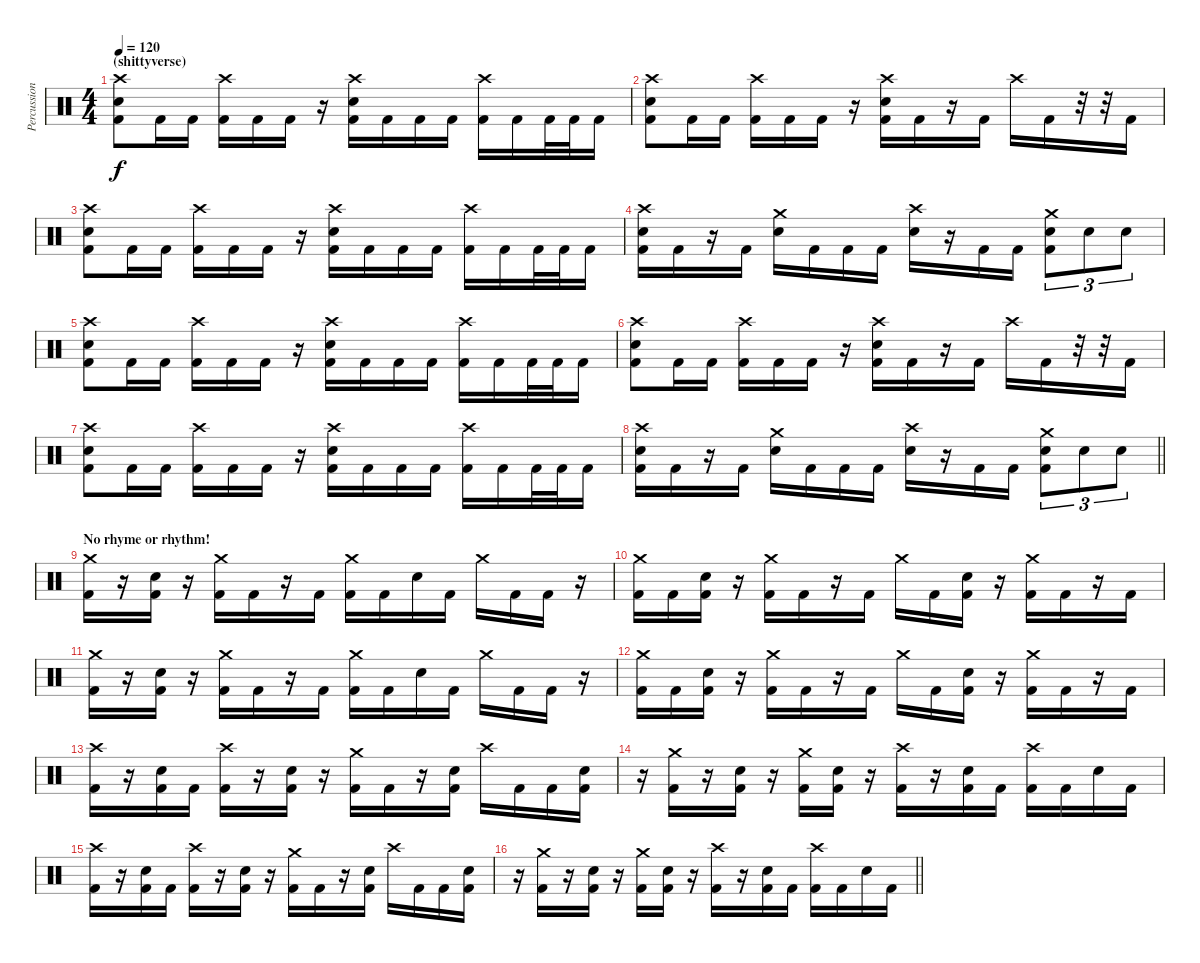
\track ("Percussion" "Percussion") {instrument percussion}
\staff {score}
\articulation defaults
\ts (4 4)
\section ("" "(shittyverse)")
\tempo 120
\clef neutral
\ks c
("Crash high (hit)" "Electric Snare (hit)" "Kick (hit) 2").8{dy f} "Kick (hit) 2".16 "Kick (hit) 2".16 ("Crash high (hit)" "Kick (hit) 2").16 "Kick (hit) 2".16 "Kick (hit) 2".16 r.16 ("Crash high (hit)" "Electric Snare (hit)" "Kick (hit) 2").16 "Kick (hit) 2".16 "Kick (hit) 2".16 "Kick (hit) 2".16 ("Crash high (hit)" "Kick (hit) 2").16 "Kick (hit) 2".16 "Kick (hit) 2".32 "Kick (hit) 2".32 "Kick (hit) 2".16 |
("Crash high (hit)" "Electric Snare (hit)" "Kick (hit) 2").8 "Kick (hit) 2".16 "Kick (hit) 2".16 ("Crash high (hit)" "Kick (hit) 2").16 "Kick (hit) 2".16 "Kick (hit) 2".16 r.16 ("Crash high (hit)" "Electric Snare (hit)" "Kick (hit) 2").16 "Kick (hit) 2".16 r.16 "Kick (hit) 2".16 "Crash high (hit)".16 "Kick (hit) 2".16 r.32 r.32 "Kick (hit) 2".16 |
("Crash high (hit)" "Electric Snare (hit)" "Kick (hit) 2").8 "Kick (hit) 2".16 "Kick (hit) 2".16 ("Crash high (hit)" "Kick (hit) 2").16 "Kick (hit) 2".16 "Kick (hit) 2".16 r.16 ("Crash high (hit)" "Electric Snare (hit)" "Kick (hit) 2").16 "Kick (hit) 2".16 "Kick (hit) 2".16 "Kick (hit) 2".16 ("Crash high (hit)" "Kick (hit) 2").16 "Kick (hit) 2".16 "Kick (hit) 2".32 "Kick (hit) 2".32 "Kick (hit) 2".16 |
("Crash high (hit)" "Electric Snare (hit)" "Kick (hit) 2").16 "Kick (hit) 2".16 r.16 "Kick (hit) 2".16 ("Crash medium (hit)" "Electric Snare (hit)").16 "Kick (hit) 2".16 "Kick (hit) 2".16 "Kick (hit) 2".16 ("Crash high (hit)" "Electric Snare (hit)").16 r.16 "Kick (hit) 2".16 "Kick (hit) 2".16 ("Crash medium (hit)" "Electric Snare (hit)" "Kick (hit) 2").8{tu (3 2)} "Electric Snare (hit)".8{tu (3 2)} "Electric Snare (hit)".8{tu (3 2)} |
("Crash high (hit)" "Electric Snare (hit)" "Kick (hit) 2").8 "Kick (hit) 2".16 "Kick (hit) 2".16 ("Crash high (hit)" "Kick (hit) 2").16 "Kick (hit) 2".16 "Kick (hit) 2".16 r.16 ("Crash high (hit)" "Electric Snare (hit)" "Kick (hit) 2").16 "Kick (hit) 2".16 "Kick (hit) 2".16 "Kick (hit) 2".16 ("Crash high (hit)" "Kick (hit) 2").16 "Kick (hit) 2".16 "Kick (hit) 2".32 "Kick (hit) 2".32 "Kick (hit) 2".16 |
("Crash high (hit)" "Electric Snare (hit)" "Kick (hit) 2").8 "Kick (hit) 2".16 "Kick (hit) 2".16 ("Crash high (hit)" "Kick (hit) 2").16 "Kick (hit) 2".16 "Kick (hit) 2".16 r.16 ("Crash high (hit)" "Electric Snare (hit)" "Kick (hit) 2").16 "Kick (hit) 2".16 r.16 "Kick (hit) 2".16 "Crash high (hit)".16 "Kick (hit) 2".16 r.32 r.32 "Kick (hit) 2".16 |
("Crash high (hit)" "Electric Snare (hit)" "Kick (hit) 2").8 "Kick (hit) 2".16 "Kick (hit) 2".16 ("Crash high (hit)" "Kick (hit) 2").16 "Kick (hit) 2".16 "Kick (hit) 2".16 r.16 ("Crash high (hit)" "Electric Snare (hit)" "Kick (hit) 2").16 "Kick (hit) 2".16 "Kick (hit) 2".16 "Kick (hit) 2".16 ("Crash high (hit)" "Kick (hit) 2").16 "Kick (hit) 2".16 "Kick (hit) 2".32 "Kick (hit) 2".32 "Kick (hit) 2".16 |
\barLineRight lightlight
("Crash high (hit)" "Electric Snare (hit)" "Kick (hit) 2").16 "Kick (hit) 2".16 r.16 "Kick (hit) 2".16 ("Crash medium (hit)" "Electric Snare (hit)").16 "Kick (hit) 2".16 "Kick (hit) 2".16 "Kick (hit) 2".16 ("Crash high (hit)" "Electric Snare (hit)").16 r.16 "Kick (hit) 2".16 "Kick (hit) 2".16 ("Crash medium (hit)" "Electric Snare (hit)" "Kick (hit) 2").8{tu (3 2)} "Electric Snare (hit)".8{tu (3 2)} "Electric Snare (hit)".8{tu (3 2)} |
\section ("" "No rhyme or rhythm!")
("Crash medium (hit)" "Kick (hit) 2").16 r.16 ("Electric Snare (hit)" "Kick (hit) 2").16 r.16 ("Crash medium (hit)" "Kick (hit) 2").16 "Kick (hit) 2".16 r.16 "Kick (hit) 2".16 ("Crash medium (hit)" "Kick (hit) 2").16 "Kick (hit) 2".16 "Electric Snare (hit)".16 "Kick (hit) 2".16 "Crash medium (hit)".16 "Kick (hit) 2".16 "Kick (hit) 2".16 r.16 |
("Crash medium (hit)" "Kick (hit) 2").16 "Kick (hit) 2".16 ("Electric Snare (hit)" "Kick (hit) 2").16 r.16 ("Crash medium (hit)" "Kick (hit) 2").16 "Kick (hit) 2".16 r.16 "Kick (hit) 2".16 "Crash medium (hit)".16 "Kick (hit) 2".16 ("Electric Snare (hit)" "Kick (hit) 2").16 r.16 ("Crash medium (hit)" "Kick (hit) 2").16 "Kick (hit) 2".16 r.16 "Kick (hit) 2".16 |
("Crash medium (hit)" "Kick (hit) 2").16 r.16 ("Electric Snare (hit)" "Kick (hit) 2").16 r.16 ("Crash medium (hit)" "Kick (hit) 2").16 "Kick (hit) 2".16 r.16 "Kick (hit) 2".16 ("Crash medium (hit)" "Kick (hit) 2").16 "Kick (hit) 2".16 "Electric Snare (hit)".16 "Kick (hit) 2".16 "Crash medium (hit)".16 "Kick (hit) 2".16 "Kick (hit) 2".16 r.16 |
("Crash medium (hit)" "Kick (hit) 2").16 "Kick (hit) 2".16 ("Electric Snare (hit)" "Kick (hit) 2").16 r.16 ("Crash medium (hit)" "Kick (hit) 2").16 "Kick (hit) 2".16 r.16 "Kick (hit) 2".16 "Crash medium (hit)".16 "Kick (hit) 2".16 ("Electric Snare (hit)" "Kick (hit) 2").16 r.16 ("Crash medium (hit)" "Kick (hit) 2").16 "Kick (hit) 2".16 r.16 "Kick (hit) 2".16 |
("Crash high (hit)" "Kick (hit) 2").16 r.16 ("Electric Snare (hit)" "Kick (hit) 2").16 "Kick (hit) 2".16 ("Crash high (hit)" "Kick (hit) 2").16 r.16 ("Electric Snare (hit)" "Kick (hit) 2").16 r.16 ("Crash medium (hit)" "Kick (hit) 2").16 "Kick (hit) 2".16 r.16 ("Electric Snare (hit)" "Kick (hit) 2").16 "Crash high (hit)".16 "Kick (hit) 2".16 "Kick (hit) 2".16 ("Electric Snare (hit)" "Kick (hit) 2").16 |
r.16 ("Crash medium (hit)" "Kick (hit) 2").16 r.16 ("Electric Snare (hit)" "Kick (hit) 2").16 r.16 ("Crash medium (hit)" "Kick (hit) 2").16 ("Electric Snare (hit)" "Kick (hit) 2").16 r.16 ("Crash high (hit)" "Kick (hit) 2").16 r.16 ("Electric Snare (hit)" "Kick (hit) 2").16 "Kick (hit) 2".16 ("Crash high (hit)" "Kick (hit) 2").16 "Kick (hit) 2".16 "Electric Snare (hit)".16 "Kick (hit) 2".16 |
("Crash high (hit)" "Kick (hit) 2").16 r.16 ("Electric Snare (hit)" "Kick (hit) 2").16 "Kick (hit) 2".16 ("Crash high (hit)" "Kick (hit) 2").16 r.16 ("Electric Snare (hit)" "Kick (hit) 2").16 r.16 ("Crash medium (hit)" "Kick (hit) 2").16 "Kick (hit) 2".16 r.16 ("Electric Snare (hit)" "Kick (hit) 2").16 "Crash high (hit)".16 "Kick (hit) 2".16 "Kick (hit) 2".16 ("Electric Snare (hit)" "Kick (hit) 2").16 |
\barLineRight lightlight
r.16 ("Crash medium (hit)" "Kick (hit) 2").16 r.16 ("Electric Snare (hit)" "Kick (hit) 2").16 r.16 ("Crash medium (hit)" "Kick (hit) 2").16 ("Electric Snare (hit)" "Kick (hit) 2").16 r.16 ("Crash high (hit)" "Kick (hit) 2").16 r.16 ("Electric Snare (hit)" "Kick (hit) 2").16 "Kick (hit) 2".16 ("Crash high (hit)" "Kick (hit) 2").16 "Kick (hit) 2".16 "Electric Snare (hit)".16 "Kick (hit) 2".16
